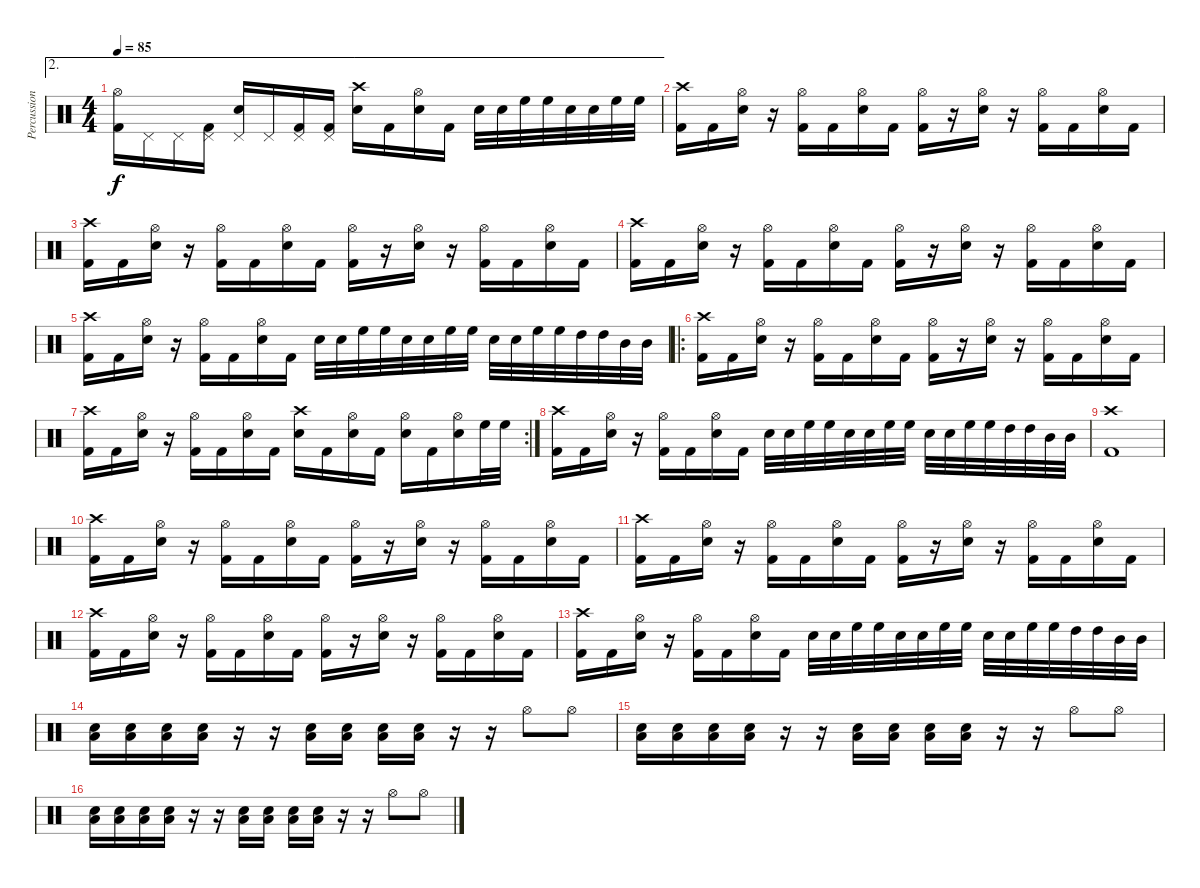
\track ("Percussion" "Percussion") {instrument percussion}
\staff {score}
\articulation defaults
\ae 2
\ts (4 4)
\tempo 85
\clef neutral
\ks c
("Kick (hit) 2" "Hi-Hat (open)").16{dy f} "Pedal Hi-Hat (hit)".16 "Pedal Hi-Hat (hit)".16 ("Kick (hit) 2" "Pedal Hi-Hat (hit)").16 ("Electric Snare (hit)" "Pedal Hi-Hat (hit)").16 "Pedal Hi-Hat (hit)".16 ("Kick (hit) 2" "Pedal Hi-Hat (hit)").16 ("Kick (hit) 2" "Pedal Hi-Hat (hit)").16 ("Crash high (hit)" "Electric Snare (hit)").16 "Kick (hit) 2".16 ("Hi-Hat (open)" "Electric Snare (hit)").16 "Kick (hit) 2".16 "Electric Snare (hit)".32 "Electric Snare (hit)".32 "High Floor Tom (hit)".32 "High Floor Tom (hit)".32 "Electric Snare (hit)".32 "Electric Snare (hit)".32 "High Floor Tom (hit)".32 "High Floor Tom (hit)".32 |
("Crash high (hit)" "Kick (hit) 2").16 "Kick (hit) 2".16 ("Hi-Hat (open)" "Electric Snare (hit)").16 r.16 ("Hi-Hat (open)" "Kick (hit) 2").16 "Kick (hit) 2".16 ("Hi-Hat (open)" "Electric Snare (hit)").16 "Kick (hit) 2".16 ("Hi-Hat (open)" "Kick (hit) 2").16 r.16 ("Hi-Hat (open)" "Electric Snare (hit)").16 r.16 ("Hi-Hat (open)" "Kick (hit) 2").16 "Kick (hit) 2".16 ("Hi-Hat (open)" "Electric Snare (hit)").16 "Kick (hit) 2".16 |
("Crash high (hit)" "Kick (hit) 2").16 "Kick (hit) 2".16 ("Hi-Hat (open)" "Electric Snare (hit)").16 r.16 ("Hi-Hat (open)" "Kick (hit) 2").16 "Kick (hit) 2".16 ("Hi-Hat (open)" "Electric Snare (hit)").16 "Kick (hit) 2".16 ("Hi-Hat (open)" "Kick (hit) 2").16 r.16 ("Hi-Hat (open)" "Electric Snare (hit)").16 r.16 ("Hi-Hat (open)" "Kick (hit) 2").16 "Kick (hit) 2".16 ("Hi-Hat (open)" "Electric Snare (hit)").16 "Kick (hit) 2".16 |
("Crash high (hit)" "Kick (hit) 2").16 "Kick (hit) 2".16 ("Hi-Hat (open)" "Electric Snare (hit)").16 r.16 ("Hi-Hat (open)" "Kick (hit) 2").16 "Kick (hit) 2".16 ("Hi-Hat (open)" "Electric Snare (hit)").16 "Kick (hit) 2".16 ("Hi-Hat (open)" "Kick (hit) 2").16 r.16 ("Hi-Hat (open)" "Electric Snare (hit)").16 r.16 ("Hi-Hat (open)" "Kick (hit) 2").16 "Kick (hit) 2".16 ("Hi-Hat (open)" "Electric Snare (hit)").16 "Kick (hit) 2".16 |
("Crash high (hit)" "Kick (hit) 2").16 "Kick (hit) 2".16 ("Hi-Hat (open)" "Electric Snare (hit)").16 r.16 ("Hi-Hat (open)" "Kick (hit) 2").16 "Kick (hit) 2".16 ("Hi-Hat (open)" "Electric Snare (hit)").16 "Kick (hit) 2".16 "Electric Snare (hit)".32 "Electric Snare (hit)".32 "High Floor Tom (hit)".32 "High Floor Tom (hit)".32 "Electric Snare (hit)".32 "Electric Snare (hit)".32 "High Floor Tom (hit)".32 "High Floor Tom (hit)".32 "Electric Snare (hit)".32 "Electric Snare (hit)".32 "High Floor Tom (hit)".32 "High Floor Tom (hit)".32 "High Tom (hit)".32 "High Tom (hit)".32 "Mid Tom (hit)".32 "Mid Tom (hit)".32 |
\ro
("Crash high (hit)" "Kick (hit) 2").16 "Kick (hit) 2".16 ("Hi-Hat (open)" "Electric Snare (hit)").16 r.16 ("Hi-Hat (open)" "Kick (hit) 2").16 "Kick (hit) 2".16 ("Hi-Hat (open)" "Electric Snare (hit)").16 "Kick (hit) 2".16 ("Hi-Hat (open)" "Kick (hit) 2").16 r.16 ("Hi-Hat (open)" "Electric Snare (hit)").16 r.16 ("Hi-Hat (open)" "Kick (hit) 2").16 "Kick (hit) 2".16 ("Hi-Hat (open)" "Electric Snare (hit)").16 "Kick (hit) 2".16 |
\rc 2
("Crash high (hit)" "Kick (hit) 2").16 "Kick (hit) 2".16 ("Hi-Hat (open)" "Electric Snare (hit)").16 r.16 ("Hi-Hat (open)" "Kick (hit) 2").16 "Kick (hit) 2".16 ("Hi-Hat (open)" "Electric Snare (hit)").16 "Kick (hit) 2".16 ("Crash high (hit)" "Electric Snare (hit)").16 "Kick (hit) 2".16 ("Hi-Hat (open)" "Electric Snare (hit)").16 "Kick (hit) 2".16 ("Hi-Hat (open)" "Electric Snare (hit)").16 "Kick (hit) 2".16 ("Hi-Hat (open)" "Electric Snare (hit)").16 "High Floor Tom (hit)".32 "High Floor Tom (hit)".32 |
("Crash high (hit)" "Kick (hit) 2").16 "Kick (hit) 2".16 ("Hi-Hat (open)" "Electric Snare (hit)").16 r.16 ("Hi-Hat (open)" "Kick (hit) 2").16 "Kick (hit) 2".16 ("Hi-Hat (open)" "Electric Snare (hit)").16 "Kick (hit) 2".16 "Electric Snare (hit)".32 "Electric Snare (hit)".32 "High Floor Tom (hit)".32 "High Floor Tom (hit)".32 "Electric Snare (hit)".32 "Electric Snare (hit)".32 "High Floor Tom (hit)".32 "High Floor Tom (hit)".32 "Electric Snare (hit)".32 "Electric Snare (hit)".32 "High Floor Tom (hit)".32 "High Floor Tom (hit)".32 "High Tom (hit)".32 "High Tom (hit)".32 "Mid Tom (hit)".32 "Mid Tom (hit)".32 |
("Kick (hit) 2" "Crash high (hit)").1 |
("Crash high (hit)" "Kick (hit) 2").16 "Kick (hit) 2".16 ("Hi-Hat (open)" "Electric Snare (hit)").16 r.16 ("Hi-Hat (open)" "Kick (hit) 2").16 "Kick (hit) 2".16 ("Hi-Hat (open)" "Electric Snare (hit)").16 "Kick (hit) 2".16 ("Hi-Hat (open)" "Kick (hit) 2").16 r.16 ("Hi-Hat (open)" "Electric Snare (hit)").16 r.16 ("Hi-Hat (open)" "Kick (hit) 2").16 "Kick (hit) 2".16 ("Hi-Hat (open)" "Electric Snare (hit)").16 "Kick (hit) 2".16 |
("Crash high (hit)" "Kick (hit) 2").16 "Kick (hit) 2".16 ("Hi-Hat (open)" "Electric Snare (hit)").16 r.16 ("Hi-Hat (open)" "Kick (hit) 2").16 "Kick (hit) 2".16 ("Hi-Hat (open)" "Electric Snare (hit)").16 "Kick (hit) 2".16 ("Hi-Hat (open)" "Kick (hit) 2").16 r.16 ("Hi-Hat (open)" "Electric Snare (hit)").16 r.16 ("Hi-Hat (open)" "Kick (hit) 2").16 "Kick (hit) 2".16 ("Hi-Hat (open)" "Electric Snare (hit)").16 "Kick (hit) 2".16 |
("Crash high (hit)" "Kick (hit) 2").16 "Kick (hit) 2".16 ("Hi-Hat (open)" "Electric Snare (hit)").16 r.16 ("Hi-Hat (open)" "Kick (hit) 2").16 "Kick (hit) 2".16 ("Hi-Hat (open)" "Electric Snare (hit)").16 "Kick (hit) 2".16 ("Hi-Hat (open)" "Kick (hit) 2").16 r.16 ("Hi-Hat (open)" "Electric Snare (hit)").16 r.16 ("Hi-Hat (open)" "Kick (hit) 2").16 "Kick (hit) 2".16 ("Hi-Hat (open)" "Electric Snare (hit)").16 "Kick (hit) 2".16 |
("Crash high (hit)" "Kick (hit) 2").16 "Kick (hit) 2".16 ("Hi-Hat (open)" "Electric Snare (hit)").16 r.16 ("Hi-Hat (open)" "Kick (hit) 2").16 "Kick (hit) 2".16 ("Hi-Hat (open)" "Electric Snare (hit)").16 "Kick (hit) 2".16 "Electric Snare (hit)".32 "Electric Snare (hit)".32 "High Floor Tom (hit)".32 "High Floor Tom (hit)".32 "Electric Snare (hit)".32 "Electric Snare (hit)".32 "High Floor Tom (hit)".32 "High Floor Tom (hit)".32 "Electric Snare (hit)".32 "Electric Snare (hit)".32 "High Floor Tom (hit)".32 "High Floor Tom (hit)".32 "High Tom (hit)".32 "High Tom (hit)".32 "Mid Tom (hit)".32 "Mid Tom (hit)".32 |
("Low Tom (hit)" "Electric Snare (hit)").16 ("Low Tom (hit)" "Electric Snare (hit)").16 ("Low Tom (hit)" "Electric Snare (hit)").16 ("Low Tom (hit)" "Electric Snare (hit)").16 r.16 r.16 ("Low Tom (hit)" "Electric Snare (hit)").16 ("Low Tom (hit)" "Electric Snare (hit)").16 ("Low Tom (hit)" "Electric Snare (hit)").16 ("Low Tom (hit)" "Electric Snare (hit)").16 r.16 r.16 "Hi-Hat (open)".8 "Hi-Hat (open)".8 |
("Low Tom (hit)" "Electric Snare (hit)").16 ("Low Tom (hit)" "Electric Snare (hit)").16 ("Low Tom (hit)" "Electric Snare (hit)").16 ("Low Tom (hit)" "Electric Snare (hit)").16 r.16 r.16 ("Low Tom (hit)" "Electric Snare (hit)").16 ("Low Tom (hit)" "Electric Snare (hit)").16 ("Low Tom (hit)" "Electric Snare (hit)").16 ("Low Tom (hit)" "Electric Snare (hit)").16 r.16 r.16 "Hi-Hat (open)".8 "Hi-Hat (open)".8 |
("Low Tom (hit)" "Electric Snare (hit)").16 ("Low Tom (hit)" "Electric Snare (hit)").16 ("Low Tom (hit)" "Electric Snare (hit)").16 ("Low Tom (hit)" "Electric Snare (hit)").16 r.16 r.16 ("Low Tom (hit)" "Electric Snare (hit)").16 ("Low Tom (hit)" "Electric Snare (hit)").16 ("Low Tom (hit)" "Electric Snare (hit)").16 ("Low Tom (hit)" "Electric Snare (hit)").16 r.16 r.16 "Hi-Hat (open)".8 "Hi-Hat (open)".8
